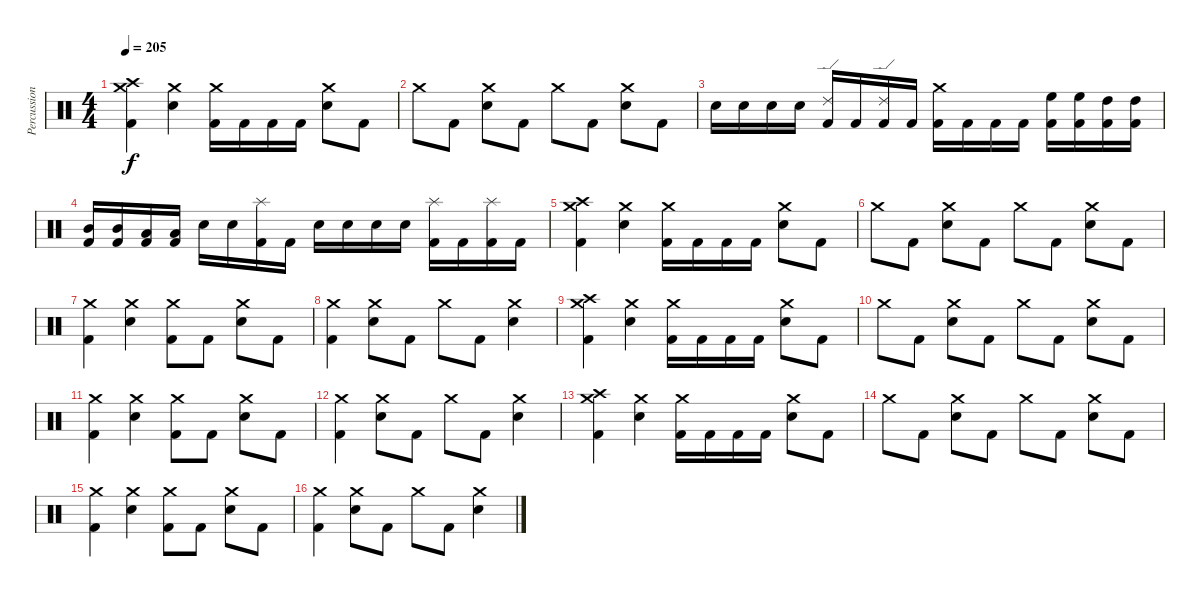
\track ("Percussions" "Percussion") {instrument percussion}
\staff {score}
\articulation defaults
\ts (4 4)
\tempo 205
\clef neutral
\ks c
("Crash medium (hit)" "Crash high (hit)" "Kick (hit) 2").4{dy f} ("Crash medium (hit)" "Electric Snare (hit)").4 ("Crash medium (hit)" "Kick (hit) 2").16 "Kick (hit) 2".16 "Kick (hit) 2".16 "Kick (hit) 2".16 ("Crash medium (hit)" "Electric Snare (hit)").8 "Kick (hit) 2".8 |
"Crash medium (hit)".8 "Kick (hit) 2".8 ("Crash medium (hit)" "Electric Snare (hit)").8 "Kick (hit) 2".8 "Crash medium (hit)".8 "Kick (hit) 2".8 ("Crash medium (hit)" "Electric Snare (hit)").8 "Kick (hit) 2".8 |
"Electric Snare (hit)".16 "Electric Snare (hit)".16 "Electric Snare (hit)".16 "Electric Snare (hit)".16 ("Ride (edge) 2" "Kick (hit) 2").16 "Kick (hit) 2".16 ("Ride (edge) 2" "Kick (hit) 2").16 "Kick (hit) 2".16 ("Crash medium (hit)" "Kick (hit) 2").16 "Kick (hit) 2".16 "Kick (hit) 2".16 "Kick (hit) 2".16 ("High Floor Tom (hit)" "Kick (hit) 2").16 ("High Floor Tom (hit)" "Kick (hit) 2").16 ("High Tom (hit)" "Kick (hit) 2").16 ("High Tom (hit)" "Kick (hit) 2").16 |
("Mid Tom (hit)" "Kick (hit) 2").16 ("Mid Tom (hit)" "Kick (hit) 2").16 ("Low Tom (hit)" "Kick (hit) 2").16 ("Low Tom (hit)" "Kick (hit) 2").16 "Electric Snare (hit)".16 "Electric Snare (hit)".16 ("Splash (hit)" "Kick (hit) 2").16 "Kick (hit) 2".16 "Electric Snare (hit)".16 "Electric Snare (hit)".16 "Electric Snare (hit)".16 "Electric Snare (hit)".16 ("Splash (hit)" "Kick (hit) 2").16 "Kick (hit) 2".16 ("Splash (hit)" "Kick (hit) 2").16 "Kick (hit) 2".16 |
("Crash medium (hit)" "Crash high (hit)" "Kick (hit) 2").4 ("Crash medium (hit)" "Electric Snare (hit)").4 ("Crash medium (hit)" "Kick (hit) 2").16 "Kick (hit) 2".16 "Kick (hit) 2".16 "Kick (hit) 2".16 ("Crash medium (hit)" "Electric Snare (hit)").8 "Kick (hit) 2".8 |
"Crash medium (hit)".8 "Kick (hit) 2".8 ("Crash medium (hit)" "Electric Snare (hit)").8 "Kick (hit) 2".8 "Crash medium (hit)".8 "Kick (hit) 2".8 ("Crash medium (hit)" "Electric Snare (hit)").8 "Kick (hit) 2".8 |
("Crash medium (hit)" "Kick (hit) 2").4 ("Crash medium (hit)" "Electric Snare (hit)").4 ("Crash medium (hit)" "Kick (hit) 2").8 "Kick (hit) 2".8 ("Crash medium (hit)" "Electric Snare (hit)").8 "Kick (hit) 2".8 |
("Crash medium (hit)" "Kick (hit) 2").4 ("Crash medium (hit)" "Electric Snare (hit)").8 "Kick (hit) 2".8 "Crash medium (hit)".8 "Kick (hit) 2".8 ("Crash medium (hit)" "Electric Snare (hit)").4 |
("Crash medium (hit)" "Crash high (hit)" "Kick (hit) 2").4 ("Crash medium (hit)" "Electric Snare (hit)").4 ("Crash medium (hit)" "Kick (hit) 2").16 "Kick (hit) 2".16 "Kick (hit) 2".16 "Kick (hit) 2".16 ("Crash medium (hit)" "Electric Snare (hit)").8 "Kick (hit) 2".8 |
"Crash medium (hit)".8 "Kick (hit) 2".8 ("Crash medium (hit)" "Electric Snare (hit)").8 "Kick (hit) 2".8 "Crash medium (hit)".8 "Kick (hit) 2".8 ("Crash medium (hit)" "Electric Snare (hit)").8 "Kick (hit) 2".8 |
("Crash medium (hit)" "Kick (hit) 2").4 ("Crash medium (hit)" "Electric Snare (hit)").4 ("Crash medium (hit)" "Kick (hit) 2").8 "Kick (hit) 2".8 ("Crash medium (hit)" "Electric Snare (hit)").8 "Kick (hit) 2".8 |
("Crash medium (hit)" "Kick (hit) 2").4 ("Crash medium (hit)" "Electric Snare (hit)").8 "Kick (hit) 2".8 "Crash medium (hit)".8 "Kick (hit) 2".8 ("Crash medium (hit)" "Electric Snare (hit)").4 |
("Crash medium (hit)" "Crash high (hit)" "Kick (hit) 2").4 ("Crash medium (hit)" "Electric Snare (hit)").4 ("Crash medium (hit)" "Kick (hit) 2").16 "Kick (hit) 2".16 "Kick (hit) 2".16 "Kick (hit) 2".16 ("Crash medium (hit)" "Electric Snare (hit)").8 "Kick (hit) 2".8 |
"Crash medium (hit)".8 "Kick (hit) 2".8 ("Crash medium (hit)" "Electric Snare (hit)").8 "Kick (hit) 2".8 "Crash medium (hit)".8 "Kick (hit) 2".8 ("Crash medium (hit)" "Electric Snare (hit)").8 "Kick (hit) 2".8 |
("Crash medium (hit)" "Kick (hit) 2").4 ("Crash medium (hit)" "Electric Snare (hit)").4 ("Crash medium (hit)" "Kick (hit) 2").8 "Kick (hit) 2".8 ("Crash medium (hit)" "Electric Snare (hit)").8 "Kick (hit) 2".8 |
("Crash medium (hit)" "Kick (hit) 2").4 ("Crash medium (hit)" "Electric Snare (hit)").8 "Kick (hit) 2".8 "Crash medium (hit)".8 "Kick (hit) 2".8 ("Crash medium (hit)" "Electric Snare (hit)").4
